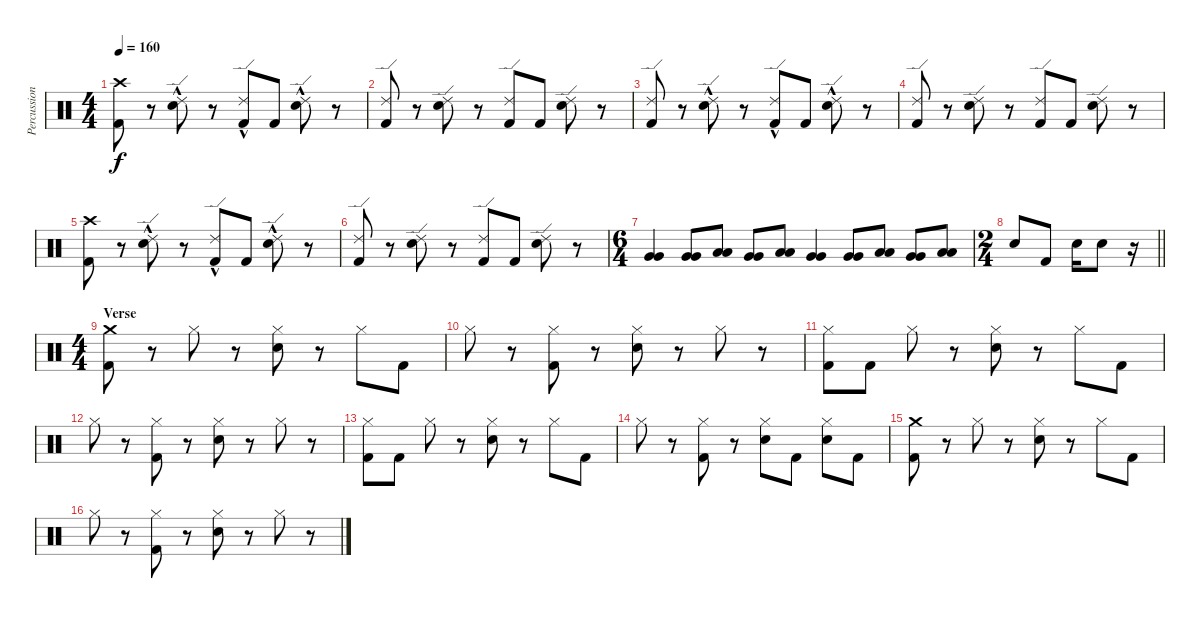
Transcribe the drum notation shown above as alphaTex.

\track ("Percussion" "Percussion") {instrument percussion}
\staff {score}
\articulation defaults
\ts (4 4)
\tempo 160
\clef neutral
\ks c
("Crash high (hit)" "Kick (hit) 2").8{dy f} r.8 ("Ride (edge) 2"{hac} "Electric Snare (hit)").8 r.8 ("Ride (edge) 2"{hac} "Kick (hit) 2").8 "Kick (hit) 2".8 ("Ride (edge) 2"{hac} "Electric Snare (hit)").8 r.8 |
("Ride (edge) 2" "Kick (hit) 2").8 r.8 ("Ride (edge) 2" "Electric Snare (hit)").8 r.8 ("Ride (edge) 2" "Kick (hit) 2").8 "Kick (hit) 2".8 ("Ride (edge) 2" "Electric Snare (hit)").8 r.8 |
("Ride (edge) 2" "Kick (hit) 2").8 r.8 ("Ride (edge) 2"{hac} "Electric Snare (hit)").8 r.8 ("Ride (edge) 2"{hac} "Kick (hit) 2").8 "Kick (hit) 2".8 ("Ride (edge) 2"{hac} "Electric Snare (hit)").8 r.8 |
("Ride (edge) 2" "Kick (hit) 2").8 r.8 ("Ride (edge) 2" "Electric Snare (hit)").8 r.8 ("Ride (edge) 2" "Kick (hit) 2").8 "Kick (hit) 2".8 ("Ride (edge) 2" "Electric Snare (hit)").8 r.8 |
("Crash high (hit)" "Kick (hit) 2").8 r.8 ("Ride (edge) 2"{hac} "Electric Snare (hit)").8 r.8 ("Ride (edge) 2"{hac} "Kick (hit) 2").8 "Kick (hit) 2".8 ("Ride (edge) 2"{hac} "Electric Snare (hit)").8 r.8 |
("Ride (edge) 2" "Kick (hit) 2").8 r.8 ("Ride (edge) 2" "Electric Snare (hit)").8 r.8 ("Ride (edge) 2" "Kick (hit) 2").8 "Kick (hit) 2".8 ("Ride (edge) 2" "Electric Snare (hit)").8 r.8 |
\ts (6 4)
("Very Low Tom (hit)" "Very Low Tom (hit)").4 ("Very Low Tom (hit)" "Very Low Tom (hit)").8 ("Low Floor Tom (hit)" "Low Floor Tom (hit)").8 ("Very Low Tom (hit)" "Very Low Tom (hit)").8 ("Low Floor Tom (hit)" "Low Floor Tom (hit)").8 ("Very Low Tom (hit)" "Very Low Tom (hit)").4 ("Very Low Tom (hit)" "Very Low Tom (hit)").8 ("Low Floor Tom (hit)" "Low Floor Tom (hit)").8 ("Very Low Tom (hit)" "Very Low Tom (hit)").8 ("Low Tom (hit)" "Low Tom (hit)").8 |
\ts (2 4)
\barLineRight lightlight "Electric Snare (hit)".8 "Kick (hit) 2".8 "Electric Snare (hit)".16 "Electric Snare (hit)".8
r.16 |
\ts (4 4)
\section ("" "Verse ")
("Crash medium (hit)" "Kick (hit) 2").8 r.8 "Hi-Hat (closed)".8 r.8 ("Hi-Hat (closed)" "Electric Snare (hit)").8 r.8 "Hi-Hat (closed)".8 "Kick (hit) 2".8 |
"Hi-Hat (closed)".8 r.8 ("Hi-Hat (closed)" "Kick (hit) 2").8 r.8 ("Hi-Hat (closed)" "Electric Snare (hit)").8 r.8 "Hi-Hat (closed)".8 r.8 |
("Hi-Hat (closed)" "Kick (hit) 2").8 "Kick (hit) 2".8 "Hi-Hat (closed)".8 r.8 ("Hi-Hat (closed)" "Electric Snare (hit)").8 r.8 "Hi-Hat (closed)".8 "Kick (hit) 2".8 |
"Hi-Hat (closed)".8 r.8 ("Hi-Hat (closed)" "Kick (hit) 2").8 r.8 ("Hi-Hat (closed)" "Electric Snare (hit)").8 r.8 "Hi-Hat (closed)".8 r.8 |
("Hi-Hat (closed)" "Kick (hit) 2").8 "Kick (hit) 2".8 "Hi-Hat (closed)".8 r.8 ("Hi-Hat (closed)" "Electric Snare (hit)").8 r.8 "Hi-Hat (closed)".8 "Kick (hit) 2".8 |
"Hi-Hat (closed)".8 r.8 ("Hi-Hat (closed)" "Kick (hit) 2").8 r.8 ("Hi-Hat (closed)" "Electric Snare (hit)").8 "Kick (hit) 2".8 ("Hi-Hat (closed)" "Electric Snare (hit)").8 "Kick (hit) 2".8 |
("Crash medium (hit)" "Kick (hit) 2").8 r.8 "Hi-Hat (closed)".8 r.8 ("Hi-Hat (closed)" "Electric Snare (hit)").8 r.8 "Hi-Hat (closed)".8 "Kick (hit) 2".8 |
"Hi-Hat (closed)".8 r.8 ("Hi-Hat (closed)" "Kick (hit) 2").8 r.8 ("Hi-Hat (closed)" "Electric Snare (hit)").8 r.8 "Hi-Hat (closed)".8 r.8
